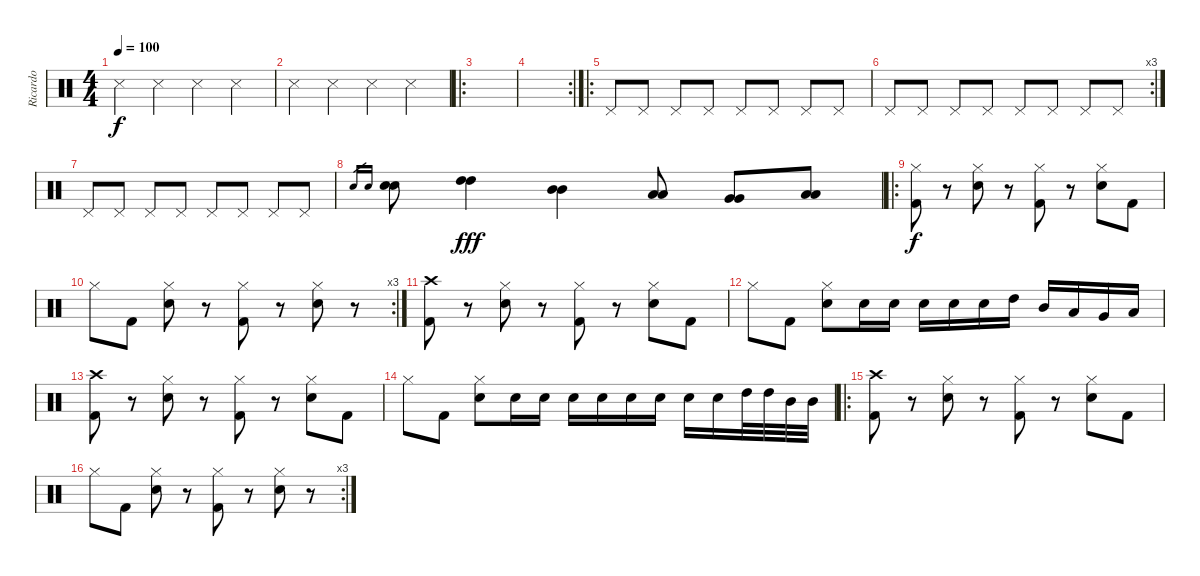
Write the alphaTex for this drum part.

\track ("Ricardo" "Ricardo") {instrument percussion}
\staff {score}
\articulation defaults
\ts (4 4)
\tempo 100
\clef neutral
\ks c "Metronome (hit)".4{dy f} "Metronome (hit)".4 "Metronome (hit)".4 "Metronome (hit)".4
|
"Metronome (hit)".4 "Metronome (hit)".4 "Metronome (hit)".4 "Metronome (hit)".4 |
\ro
|
\rc 2
|
\ro "Pedal Hi-Hat (hit)".8 "Pedal Hi-Hat (hit)".8 "Pedal Hi-Hat (hit)".8 "Pedal Hi-Hat (hit)".8 "Pedal Hi-Hat (hit)".8 "Pedal Hi-Hat (hit)".8 "Pedal Hi-Hat (hit)".8 "Pedal Hi-Hat (hit)".8
|
\rc 3 "Pedal Hi-Hat (hit)".8 "Pedal Hi-Hat (hit)".8 "Pedal Hi-Hat (hit)".8 "Pedal Hi-Hat (hit)".8 "Pedal Hi-Hat (hit)".8 "Pedal Hi-Hat (hit)".8 "Pedal Hi-Hat (hit)".8 "Pedal Hi-Hat (hit)".8
|
"Pedal Hi-Hat (hit)".8 "Pedal Hi-Hat (hit)".8 "Pedal Hi-Hat (hit)".8 "Pedal Hi-Hat (hit)".8 "Pedal Hi-Hat (hit)".8 "Pedal Hi-Hat (hit)".8 "Pedal Hi-Hat (hit)".8 "Pedal Hi-Hat (hit)".8 |
"Snare (hit) 2".16{gr} "Snare (hit) 2".16{gr} ("Snare (hit) 2" "Snare (hit) 2").8 ("High Tom (hit)" "High Tom (hit)").4{dy fff} ("Mid Tom (hit)" "Mid Tom (hit)").4 ("Low Tom (hit)" "Low Tom (hit)").8 ("Very Low Tom (hit)" "Very Low Tom (hit)").8 ("Low Floor Tom (hit)" "Low Floor Tom (hit)").8 |
\ro
("Hi-Hat (closed)" "Kick (hit) 2").8{dy f} r.8 ("Hi-Hat (closed)" "Snare (hit) 2").8 r.8 ("Hi-Hat (closed)" "Kick (hit) 2").8 r.8 ("Hi-Hat (closed)" "Snare (hit) 2").8 "Kick (hit) 2".8 |
\rc 3 "Hi-Hat (closed)".8 "Kick (hit) 2".8
("Hi-Hat (closed)" "Snare (hit) 2").8 r.8 ("Hi-Hat (closed)" "Kick (hit) 2").8 r.8 ("Hi-Hat (closed)" "Snare (hit) 2").8 r.8 |
("Crash high (hit)" "Kick (hit) 2").8 r.8 ("Hi-Hat (closed)" "Snare (hit) 2").8 r.8 ("Hi-Hat (closed)" "Kick (hit) 2").8 r.8 ("Hi-Hat (closed)" "Snare (hit) 2").8 "Kick (hit) 2".8 |
"Hi-Hat (closed)".8 "Kick (hit) 2".8 ("Hi-Hat (closed)" "Snare (hit) 2").8 "Snare (hit) 2".16 "Snare (hit) 2".16 "Snare (hit) 2".16 "Snare (hit) 2".16 "Snare (hit) 2".16 "High Tom (hit)".16 "Mid Tom (hit)".16 "Low Tom (hit)".16 "Very Low Tom (hit)".16 "Low Floor Tom (hit)".16 |
("Crash high (hit)" "Kick (hit) 2").8 r.8 ("Hi-Hat (closed)" "Snare (hit) 2").8 r.8 ("Hi-Hat (closed)" "Kick (hit) 2").8 r.8 ("Hi-Hat (closed)" "Snare (hit) 2").8 "Kick (hit) 2".8 |
"Hi-Hat (closed)".8 "Kick (hit) 2".8 ("Hi-Hat (closed)" "Snare (hit) 2").8 "Snare (hit) 2".16 "Snare (hit) 2".16 "Snare (hit) 2".16 "Snare (hit) 2".16 "Snare (hit) 2".16 "Snare (hit) 2".16 "Snare (hit) 2".16 "Snare (hit) 2".16 "High Tom (hit)".32 "High Tom (hit)".32 "Mid Tom (hit)".32 "Mid Tom (hit)".32 |
\ro
("Crash high (hit)" "Kick (hit) 2").8 r.8 ("Hi-Hat (closed)" "Snare (hit) 2").8 r.8 ("Hi-Hat (closed)" "Kick (hit) 2").8 r.8 ("Hi-Hat (closed)" "Snare (hit) 2").8 "Kick (hit) 2".8 |
\rc 3 "Hi-Hat (closed)".8 "Kick (hit) 2".8
("Hi-Hat (closed)" "Snare (hit) 2").8 r.8 ("Hi-Hat (closed)" "Kick (hit) 2").8 r.8 ("Hi-Hat (closed)" "Snare (hit) 2").8 r.8
